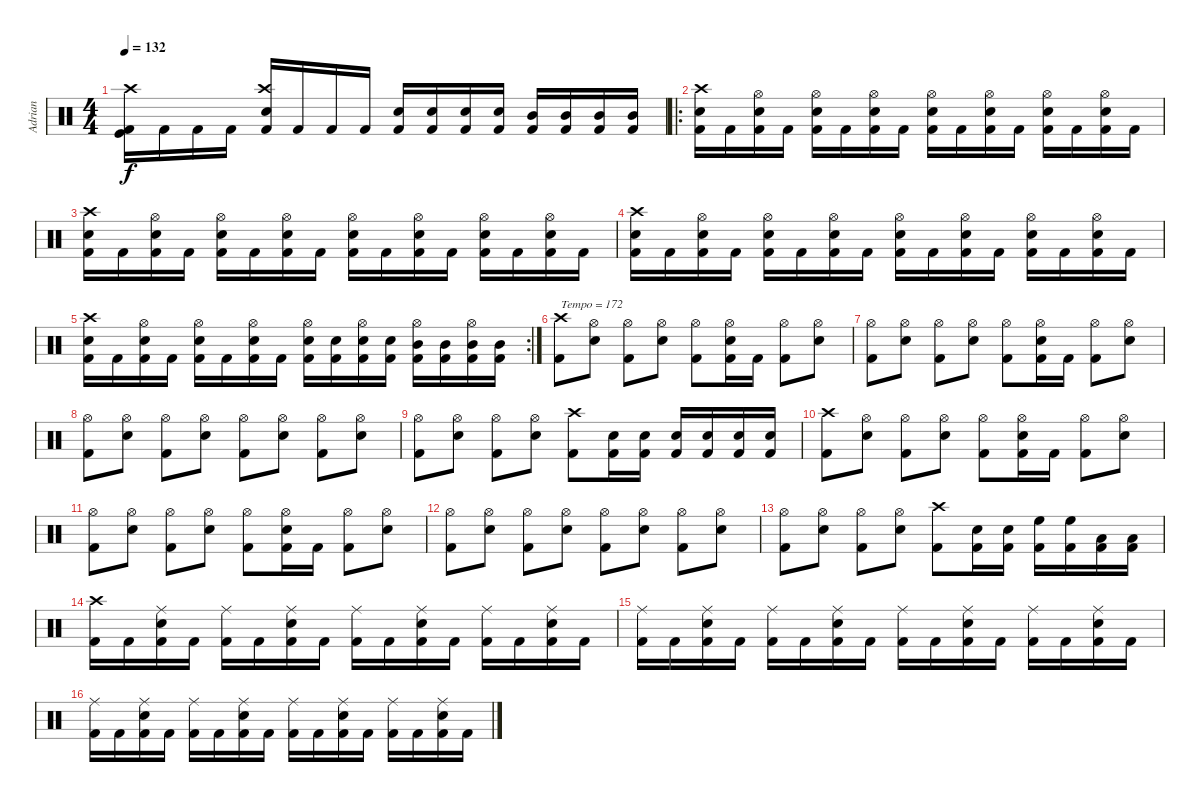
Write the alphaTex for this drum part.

\track ("Adrian" "Adrian") {instrument percussion}
\staff {score}
\articulation defaults
\ts (4 4)
\tempo 132
\clef neutral
\ks c
("Kick (hit) 2" "Kick (hit)" "Crash high (hit)").16{dy f} "Kick (hit) 2".16 "Kick (hit) 2".16 "Kick (hit) 2".16 ("Kick (hit) 2" "Snare (hit) 2" "Crash high (hit)").16 "Kick (hit) 2".16 "Kick (hit) 2".16 "Kick (hit) 2".16 ("Kick (hit) 2" "Snare (hit) 2").16 ("Kick (hit) 2" "Snare (hit) 2").16 ("Kick (hit) 2" "Snare (hit) 2").16 ("Kick (hit) 2" "Snare (hit) 2").16 ("Kick (hit) 2" "Mid Tom (hit)").16 ("Kick (hit) 2" "Mid Tom (hit)").16 ("Kick (hit) 2" "Mid Tom (hit)").16 ("Kick (hit) 2" "Mid Tom (hit)").16 |
\ro
("Kick (hit) 2" "Snare (hit) 2" "Crash high (hit)").16 "Kick (hit) 2".16 ("Kick (hit) 2" "Snare (hit) 2" "Hi-Hat (open)").16 "Kick (hit) 2".16 ("Kick (hit) 2" "Snare (hit) 2" "Hi-Hat (open)").16 "Kick (hit) 2".16 ("Kick (hit) 2" "Snare (hit) 2" "Hi-Hat (open)").16 "Kick (hit) 2".16 ("Kick (hit) 2" "Snare (hit) 2" "Hi-Hat (open)").16 "Kick (hit) 2".16 ("Kick (hit) 2" "Snare (hit) 2" "Hi-Hat (open)").16 "Kick (hit) 2".16 ("Kick (hit) 2" "Snare (hit) 2" "Hi-Hat (open)").16 "Kick (hit) 2".16 ("Kick (hit) 2" "Snare (hit) 2" "Hi-Hat (open)").16 "Kick (hit) 2".16 |
("Kick (hit) 2" "Snare (hit) 2" "Crash high (hit)").16 "Kick (hit) 2".16 ("Kick (hit) 2" "Snare (hit) 2" "Hi-Hat (open)").16 "Kick (hit) 2".16 ("Kick (hit) 2" "Snare (hit) 2" "Hi-Hat (open)").16 "Kick (hit) 2".16 ("Kick (hit) 2" "Snare (hit) 2" "Hi-Hat (open)").16 "Kick (hit) 2".16 ("Kick (hit) 2" "Snare (hit) 2" "Hi-Hat (open)").16 "Kick (hit) 2".16 ("Kick (hit) 2" "Snare (hit) 2" "Hi-Hat (open)").16 "Kick (hit) 2".16 ("Kick (hit) 2" "Snare (hit) 2" "Hi-Hat (open)").16 "Kick (hit) 2".16 ("Kick (hit) 2" "Snare (hit) 2" "Hi-Hat (open)").16 "Kick (hit) 2".16 |
("Kick (hit) 2" "Snare (hit) 2" "Crash high (hit)").16 "Kick (hit) 2".16 ("Kick (hit) 2" "Snare (hit) 2" "Hi-Hat (open)").16 "Kick (hit) 2".16 ("Kick (hit) 2" "Snare (hit) 2" "Hi-Hat (open)").16 "Kick (hit) 2".16 ("Kick (hit) 2" "Snare (hit) 2" "Hi-Hat (open)").16 "Kick (hit) 2".16 ("Kick (hit) 2" "Snare (hit) 2" "Hi-Hat (open)").16 "Kick (hit) 2".16 ("Kick (hit) 2" "Snare (hit) 2" "Hi-Hat (open)").16 "Kick (hit) 2".16 ("Kick (hit) 2" "Snare (hit) 2" "Hi-Hat (open)").16 "Kick (hit) 2".16 ("Kick (hit) 2" "Snare (hit) 2" "Hi-Hat (open)").16 "Kick (hit) 2".16 |
\rc 2
("Kick (hit) 2" "Snare (hit) 2" "Crash high (hit)").16 "Kick (hit) 2".16 ("Kick (hit) 2" "Snare (hit) 2" "Hi-Hat (open)").16 "Kick (hit) 2".16 ("Kick (hit) 2" "Snare (hit) 2" "Hi-Hat (open)").16 "Kick (hit) 2".16 ("Kick (hit) 2" "Snare (hit) 2" "Hi-Hat (open)").16 "Kick (hit) 2".16 ("Kick (hit) 2" "Snare (hit) 2" "Hi-Hat (open)").16 ("Kick (hit) 2" "Snare (hit) 2").16 ("Kick (hit) 2" "Snare (hit) 2" "Hi-Hat (open)").16 ("Kick (hit) 2" "Snare (hit) 2").16 ("Kick (hit) 2" "Mid Tom (hit)" "Hi-Hat (open)").16 ("Kick (hit) 2" "Mid Tom (hit)").16 ("Kick (hit) 2" "Mid Tom (hit)" "Hi-Hat (open)").16 ("Kick (hit) 2" "Mid Tom (hit)").16 |
("Kick (hit) 2" "Crash high (hit)").8{txt "Tempo = 172"} ("Snare (hit) 2" "Hi-Hat (open)").8 ("Kick (hit) 2" "Hi-Hat (open)").8 ("Snare (hit) 2" "Hi-Hat (open)").8 ("Kick (hit) 2" "Hi-Hat (open)").8 ("Kick (hit) 2" "Snare (hit) 2" "Hi-Hat (open)").16 "Kick (hit) 2".16 ("Kick (hit) 2" "Hi-Hat (open)").8 ("Snare (hit) 2" "Hi-Hat (open)").8 |
("Kick (hit) 2" "Hi-Hat (open)").8 ("Snare (hit) 2" "Hi-Hat (open)").8 ("Kick (hit) 2" "Hi-Hat (open)").8 ("Snare (hit) 2" "Hi-Hat (open)").8 ("Kick (hit) 2" "Hi-Hat (open)").8 ("Kick (hit) 2" "Snare (hit) 2" "Hi-Hat (open)").16 "Kick (hit) 2".16 ("Kick (hit) 2" "Hi-Hat (open)").8 ("Snare (hit) 2" "Hi-Hat (open)").8 |
("Kick (hit) 2" "Hi-Hat (open)").8 ("Snare (hit) 2" "Hi-Hat (open)").8 ("Kick (hit) 2" "Hi-Hat (open)").8 ("Snare (hit) 2" "Hi-Hat (open)").8 ("Kick (hit) 2" "Hi-Hat (open)").8 ("Snare (hit) 2" "Hi-Hat (open)").8 ("Kick (hit) 2" "Hi-Hat (open)").8 ("Snare (hit) 2" "Hi-Hat (open)").8 |
("Kick (hit) 2" "Hi-Hat (open)").8 ("Snare (hit) 2" "Hi-Hat (open)").8 ("Kick (hit) 2" "Hi-Hat (open)").8 ("Snare (hit) 2" "Hi-Hat (open)").8 ("Kick (hit) 2" "Crash high (hit)").8 ("Kick (hit) 2" "Snare (hit) 2").16 ("Kick (hit) 2" "Snare (hit) 2").16 ("Kick (hit) 2" "Snare (hit) 2").16 ("Kick (hit) 2" "Snare (hit) 2").16 ("Kick (hit) 2" "Snare (hit) 2").16 ("Kick (hit) 2" "Snare (hit) 2").16 |
("Kick (hit) 2" "Crash high (hit)").8 ("Snare (hit) 2" "Hi-Hat (open)").8 ("Kick (hit) 2" "Hi-Hat (open)").8 ("Snare (hit) 2" "Hi-Hat (open)").8 ("Kick (hit) 2" "Hi-Hat (open)").8 ("Kick (hit) 2" "Snare (hit) 2" "Hi-Hat (open)").16 "Kick (hit) 2".16 ("Kick (hit) 2" "Hi-Hat (open)").8 ("Snare (hit) 2" "Hi-Hat (open)").8 |
("Kick (hit) 2" "Hi-Hat (open)").8 ("Snare (hit) 2" "Hi-Hat (open)").8 ("Kick (hit) 2" "Hi-Hat (open)").8 ("Snare (hit) 2" "Hi-Hat (open)").8 ("Kick (hit) 2" "Hi-Hat (open)").8 ("Kick (hit) 2" "Snare (hit) 2" "Hi-Hat (open)").16 "Kick (hit) 2".16 ("Kick (hit) 2" "Hi-Hat (open)").8 ("Snare (hit) 2" "Hi-Hat (open)").8 |
("Kick (hit) 2" "Hi-Hat (open)").8 ("Snare (hit) 2" "Hi-Hat (open)").8 ("Kick (hit) 2" "Hi-Hat (open)").8 ("Snare (hit) 2" "Hi-Hat (open)").8 ("Kick (hit) 2" "Hi-Hat (open)").8 ("Snare (hit) 2" "Hi-Hat (open)").8 ("Kick (hit) 2" "Hi-Hat (open)").8 ("Snare (hit) 2" "Hi-Hat (open)").8 |
("Kick (hit) 2" "Hi-Hat (open)").8 ("Snare (hit) 2" "Hi-Hat (open)").8 ("Kick (hit) 2" "Hi-Hat (open)").8 ("Snare (hit) 2" "Hi-Hat (open)").8 ("Kick (hit) 2" "Crash high (hit)").8 ("Kick (hit) 2" "Snare (hit) 2").16 ("Kick (hit) 2" "Snare (hit) 2").16 ("Kick (hit) 2" "High Floor Tom (hit)").16 ("Kick (hit) 2" "High Floor Tom (hit)").16 ("Kick (hit) 2" "Low Tom (hit)").16 ("Kick (hit) 2" "Low Tom (hit)").16 |
("Kick (hit) 2" "Crash high (hit)").16 "Kick (hit) 2".16 ("Kick (hit) 2" "Snare (hit) 2" "Ride (middle)").16 "Kick (hit) 2".16 ("Kick (hit) 2" "Ride (middle)").16 "Kick (hit) 2".16 ("Kick (hit) 2" "Snare (hit) 2" "Ride (middle)").16 "Kick (hit) 2".16 ("Kick (hit) 2" "Ride (middle)").16 "Kick (hit) 2".16 ("Kick (hit) 2" "Snare (hit) 2" "Ride (middle)").16 "Kick (hit) 2".16 ("Kick (hit) 2" "Ride (middle)").16 "Kick (hit) 2".16 ("Kick (hit) 2" "Snare (hit) 2" "Ride (middle)").16 "Kick (hit) 2".16 |
("Kick (hit) 2" "Ride (middle)").16 "Kick (hit) 2".16 ("Kick (hit) 2" "Snare (hit) 2" "Ride (middle)").16 "Kick (hit) 2".16 ("Kick (hit) 2" "Ride (middle)").16 "Kick (hit) 2".16 ("Kick (hit) 2" "Snare (hit) 2" "Ride (middle)").16 "Kick (hit) 2".16 ("Kick (hit) 2" "Ride (middle)").16 "Kick (hit) 2".16 ("Kick (hit) 2" "Snare (hit) 2" "Ride (middle)").16 "Kick (hit) 2".16 ("Kick (hit) 2" "Ride (middle)").16 "Kick (hit) 2".16 ("Kick (hit) 2" "Snare (hit) 2" "Ride (middle)").16 "Kick (hit) 2".16 |
("Kick (hit) 2" "Ride (middle)").16 "Kick (hit) 2".16 ("Kick (hit) 2" "Snare (hit) 2" "Ride (middle)").16 "Kick (hit) 2".16 ("Kick (hit) 2" "Ride (middle)").16 "Kick (hit) 2".16 ("Kick (hit) 2" "Snare (hit) 2" "Ride (middle)").16 "Kick (hit) 2".16 ("Kick (hit) 2" "Ride (middle)").16 "Kick (hit) 2".16 ("Kick (hit) 2" "Snare (hit) 2" "Ride (middle)").16 "Kick (hit) 2".16 ("Kick (hit) 2" "Ride (middle)").16 "Kick (hit) 2".16 ("Kick (hit) 2" "Snare (hit) 2" "Ride (middle)").16 "Kick (hit) 2".16
